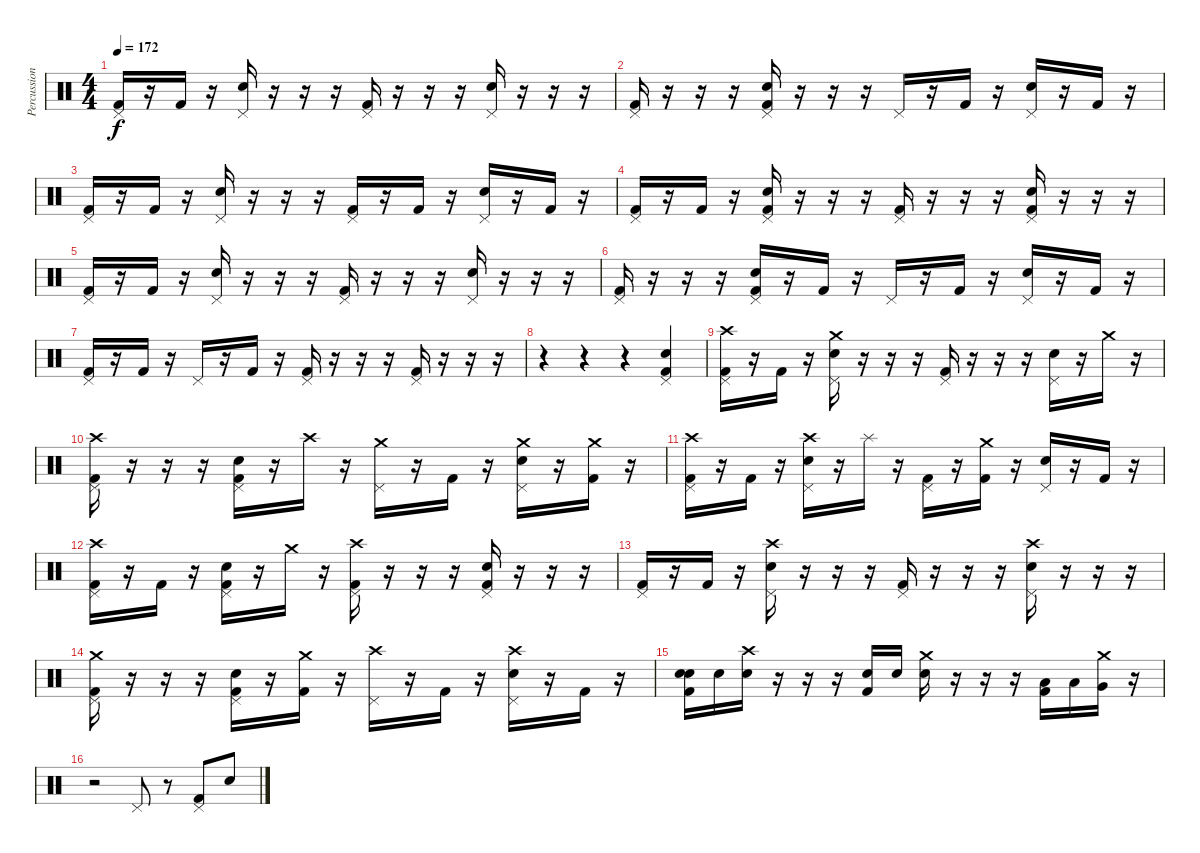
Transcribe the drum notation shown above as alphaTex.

\track ("Percussion" "Percussion") {instrument percussion}
\staff {score}
\articulation defaults
\ts (4 4)
\tempo 172
\clef neutral
\ks c
("Pedal Hi-Hat (hit)" "Kick (hit) 2").16{dy f} r.16 "Kick (hit) 2".16 r.16 ("Pedal Hi-Hat (hit)" "Snare (hit) 2").16 r.16 r.16 r.16 ("Pedal Hi-Hat (hit)" "Kick (hit) 2").16 r.16 r.16 r.16 ("Pedal Hi-Hat (hit)" "Snare (hit) 2").16 r.16 r.16 r.16 |
("Pedal Hi-Hat (hit)" "Kick (hit) 2").16 r.16 r.16 r.16 ("Pedal Hi-Hat (hit)" "Snare (hit) 2" "Kick (hit) 2").16 r.16 r.16 r.16 "Pedal Hi-Hat (hit)".16 r.16 "Kick (hit) 2".16 r.16 ("Pedal Hi-Hat (hit)" "Snare (hit) 2").16 r.16 "Kick (hit) 2".16 r.16 |
("Pedal Hi-Hat (hit)" "Kick (hit) 2").16 r.16 "Kick (hit) 2".16 r.16 ("Pedal Hi-Hat (hit)" "Snare (hit) 2").16 r.16 r.16 r.16 ("Pedal Hi-Hat (hit)" "Kick (hit) 2").16 r.16 "Kick (hit) 2".16 r.16 ("Pedal Hi-Hat (hit)" "Snare (hit) 2").16 r.16 "Kick (hit) 2".16 r.16 |
("Pedal Hi-Hat (hit)" "Kick (hit) 2").16 r.16 "Kick (hit) 2".16 r.16 ("Pedal Hi-Hat (hit)" "Snare (hit) 2" "Kick (hit) 2").16 r.16 r.16 r.16 ("Pedal Hi-Hat (hit)" "Kick (hit) 2").16 r.16 r.16 r.16 ("Pedal Hi-Hat (hit)" "Snare (hit) 2" "Kick (hit) 2").16 r.16 r.16 r.16 |
("Pedal Hi-Hat (hit)" "Kick (hit) 2").16 r.16 "Kick (hit) 2".16 r.16 ("Pedal Hi-Hat (hit)" "Snare (hit) 2").16 r.16 r.16 r.16 ("Pedal Hi-Hat (hit)" "Kick (hit) 2").16 r.16 r.16 r.16 ("Pedal Hi-Hat (hit)" "Snare (hit) 2").16 r.16 r.16 r.16 |
("Pedal Hi-Hat (hit)" "Kick (hit) 2").16 r.16 r.16 r.16 ("Pedal Hi-Hat (hit)" "Snare (hit) 2" "Kick (hit) 2").16 r.16 "Kick (hit) 2".16 r.16 "Pedal Hi-Hat (hit)".16 r.16 "Kick (hit) 2".16 r.16 ("Pedal Hi-Hat (hit)" "Snare (hit) 2").16 r.16 "Kick (hit) 2".16 r.16 |
("Pedal Hi-Hat (hit)" "Kick (hit) 2").16 r.16 "Kick (hit) 2".16 r.16 "Pedal Hi-Hat (hit)".16 r.16 "Kick (hit) 2".16 r.16 ("Pedal Hi-Hat (hit)" "Kick (hit) 2").16 r.16 r.16 r.16 ("Pedal Hi-Hat (hit)" "Kick (hit) 2").16 r.16 r.16 r.16 |
r.4 r.4 r.4 ("Pedal Hi-Hat (hit)" "Snare (hit) 2" "Kick (hit) 2").4 |
("Pedal Hi-Hat (hit)" "Crash high (hit)" "Kick (hit) 2").16 r.16 "Kick (hit) 2".16 r.16 ("Pedal Hi-Hat (hit)" "Crash medium (hit)" "Snare (hit) 2").16 r.16 r.16 r.16 ("Pedal Hi-Hat (hit)" "Kick (hit) 2").16 r.16 r.16 r.16 ("Pedal Hi-Hat (hit)" "Snare (hit) 2").16 r.16 "Crash medium (hit)".16 r.16 |
("Pedal Hi-Hat (hit)" "Crash high (hit)" "Kick (hit) 2").16 r.16 r.16 r.16 ("Pedal Hi-Hat (hit)" "Snare (hit) 2" "Kick (hit) 2").16 r.16 "Crash high (hit)".16 r.16 ("Pedal Hi-Hat (hit)" "Crash medium (hit)").16 r.16 "Kick (hit) 2".16 r.16 ("Pedal Hi-Hat (hit)" "Crash medium (hit)" "Snare (hit) 2").16 r.16 ("Crash medium (hit)" "Kick (hit) 2").16 r.16 |
("Pedal Hi-Hat (hit)" "Crash high (hit)" "Kick (hit) 2").16 r.16 "Kick (hit) 2".16 r.16 ("Pedal Hi-Hat (hit)" "Crash high (hit)" "Snare (hit) 2").16 r.16 "Splash (hit)".16 r.16 ("Pedal Hi-Hat (hit)" "Kick (hit) 2").16 r.16 ("Crash medium (hit)" "Kick (hit) 2").16 r.16 ("Pedal Hi-Hat (hit)" "Snare (hit) 2").16 r.16 "Kick (hit) 2".16 r.16 |
("Pedal Hi-Hat (hit)" "Crash high (hit)" "Kick (hit) 2").16 r.16 "Kick (hit) 2".16 r.16 ("Pedal Hi-Hat (hit)" "Snare (hit) 2" "Kick (hit) 2").16 r.16 "Crash medium (hit)".16 r.16 ("Pedal Hi-Hat (hit)" "Crash high (hit)" "Kick (hit) 2").16 r.16 r.16 r.16 ("Pedal Hi-Hat (hit)" "Snare (hit) 2" "Kick (hit) 2").16 r.16 r.16 r.16 |
("Pedal Hi-Hat (hit)" "Kick (hit) 2").16 r.16 "Kick (hit) 2".16 r.16 ("Pedal Hi-Hat (hit)" "Crash high (hit)" "Snare (hit) 2").16 r.16 r.16 r.16 ("Pedal Hi-Hat (hit)" "Kick (hit) 2").16 r.16 r.16 r.16 ("Pedal Hi-Hat (hit)" "Crash high (hit)" "Snare (hit) 2").16 r.16 r.16 r.16 |
("Pedal Hi-Hat (hit)" "Crash medium (hit)" "Kick (hit) 2").16 r.16 r.16 r.16 ("Pedal Hi-Hat (hit)" "Snare (hit) 2" "Kick (hit) 2").16 r.16 ("Crash medium (hit)" "Kick (hit) 2").16 r.16 ("Pedal Hi-Hat (hit)" "Crash high (hit)").16 r.16 "Kick (hit) 2".16 r.16 ("Pedal Hi-Hat (hit)" "Crash high (hit)" "Snare (hit) 2").16 r.16 "Kick (hit) 2".16 r.16 |
("Snare (hit) 2" "Snare (hit) 2" "Kick (hit) 2").16 "Snare (hit) 2".16 ("Crash high (hit)" "Snare (hit) 2").16 r.16 r.16 r.16 ("Snare (hit) 2" "Kick (hit) 2").16 "Snare (hit) 2".16 ("Crash medium (hit)" "Snare (hit) 2").16 r.16 r.16 r.16 ("Low Tom (hit)" "Kick (hit) 2").16 "Low Tom (hit)".16 ("Crash medium (hit)" "Very Low Tom (hit)").16 r.16 |
r.2 "Pedal Hi-Hat (hit)".8 r.8 ("Pedal Hi-Hat (hit)" "Kick (hit) 2").8 "Snare (hit) 2".8
